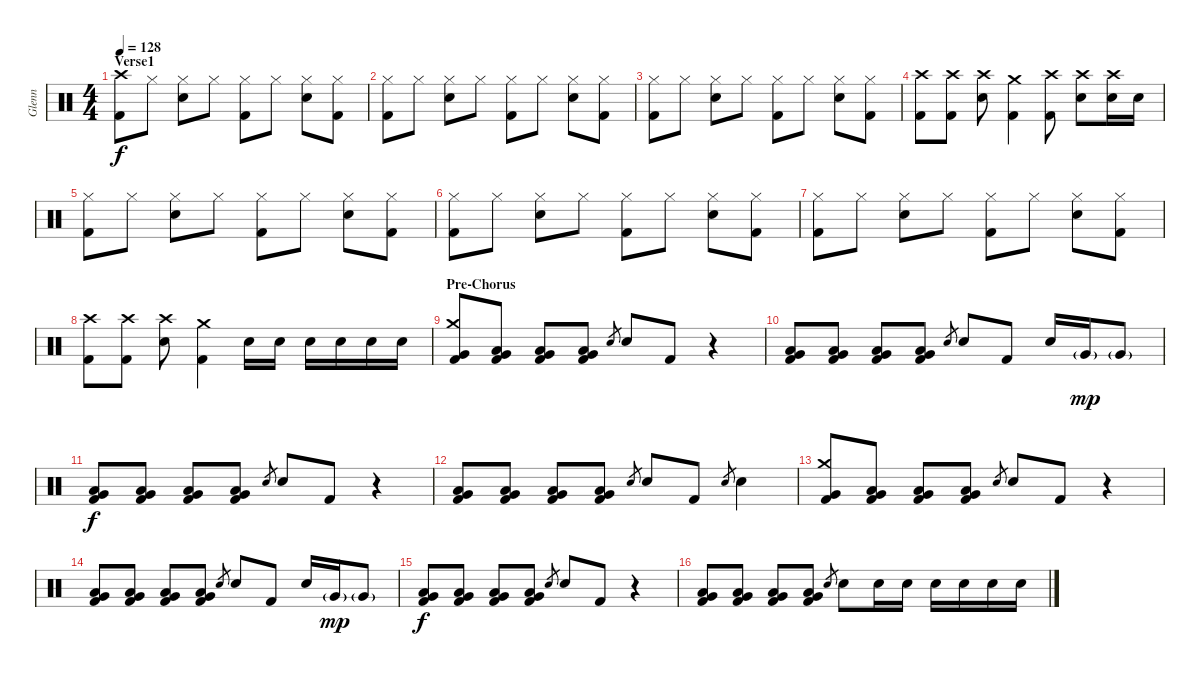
\track ("Glenn" "Glenn") {instrument percussion}
\staff {score}
\articulation defaults
\ts (4 4)
\section ("" "Verse1")
\tempo 128
\clef neutral
\ks c
("Crash high (hit)" "Kick (hit) 2").8{dy f} "Hi-Hat (closed)".8 ("Hi-Hat (closed)" "Electric Snare (hit)").8 "Hi-Hat (closed)".8 ("Hi-Hat (closed)" "Kick (hit) 2").8 "Hi-Hat (closed)".8 ("Hi-Hat (closed)" "Electric Snare (hit)").8 ("Hi-Hat (closed)" "Kick (hit) 2").8 |
("Hi-Hat (closed)" "Kick (hit) 2").8 "Hi-Hat (closed)".8 ("Hi-Hat (closed)" "Electric Snare (hit)").8 "Hi-Hat (closed)".8 ("Hi-Hat (closed)" "Kick (hit) 2").8 "Hi-Hat (closed)".8 ("Hi-Hat (closed)" "Electric Snare (hit)").8 ("Hi-Hat (closed)" "Kick (hit) 2").8 |
("Hi-Hat (closed)" "Kick (hit) 2").8 "Hi-Hat (closed)".8 ("Hi-Hat (closed)" "Electric Snare (hit)").8 "Hi-Hat (closed)".8 ("Hi-Hat (closed)" "Kick (hit) 2").8 "Hi-Hat (closed)".8 ("Hi-Hat (closed)" "Electric Snare (hit)").8 ("Hi-Hat (closed)" "Kick (hit) 2").8 |
("Crash high (hit)" "Kick (hit) 2").8 ("Crash high (hit)" "Kick (hit) 2").8 ("Crash high (hit)" "Electric Snare (hit)").8 ("Crash medium (hit)" "Kick (hit) 2").4 ("Crash high (hit)" "Kick (hit) 2").8 ("Crash high (hit)" "Electric Snare (hit)").8 ("Crash high (hit)" "Electric Snare (hit)").16 "Electric Snare (hit)".16 |
("Hi-Hat (closed)" "Kick (hit) 2").8 "Hi-Hat (closed)".8 ("Hi-Hat (closed)" "Electric Snare (hit)").8 "Hi-Hat (closed)".8 ("Hi-Hat (closed)" "Kick (hit) 2").8 "Hi-Hat (closed)".8 ("Hi-Hat (closed)" "Electric Snare (hit)").8 ("Hi-Hat (closed)" "Kick (hit) 2").8 |
("Hi-Hat (closed)" "Kick (hit) 2").8 "Hi-Hat (closed)".8 ("Hi-Hat (closed)" "Electric Snare (hit)").8 "Hi-Hat (closed)".8 ("Hi-Hat (closed)" "Kick (hit) 2").8 "Hi-Hat (closed)".8 ("Hi-Hat (closed)" "Electric Snare (hit)").8 ("Hi-Hat (closed)" "Kick (hit) 2").8 |
("Hi-Hat (closed)" "Kick (hit) 2").8 "Hi-Hat (closed)".8 ("Hi-Hat (closed)" "Electric Snare (hit)").8 "Hi-Hat (closed)".8 ("Hi-Hat (closed)" "Kick (hit) 2").8 "Hi-Hat (closed)".8 ("Hi-Hat (closed)" "Electric Snare (hit)").8 ("Hi-Hat (closed)" "Kick (hit) 2").8 |
("Crash high (hit)" "Kick (hit) 2").8 ("Crash high (hit)" "Kick (hit) 2").8 ("Crash high (hit)" "Electric Snare (hit)").8 ("Crash medium (hit)" "Kick (hit) 2").4 "Electric Snare (hit)".16 "Electric Snare (hit)".16 "Electric Snare (hit)".16 "Electric Snare (hit)".16 "Electric Snare (hit)".16 "Electric Snare (hit)".16 |
\section ("" "Pre-Chorus")
("Crash medium (hit)" "Very Low Tom (hit)" "Kick (hit) 2").8 ("Low Tom (hit)" "Very Low Tom (hit)" "Kick (hit) 2").8 ("Low Tom (hit)" "Very Low Tom (hit)" "Kick (hit) 2").8 ("Low Tom (hit)" "Very Low Tom (hit)" "Kick (hit) 2").8 "Electric Snare (hit)".8{gr} "Electric Snare (hit)".8 "Kick (hit) 2".8 r.4 |
("Low Tom (hit)" "Very Low Tom (hit)" "Kick (hit) 2").8 ("Low Tom (hit)" "Very Low Tom (hit)" "Kick (hit) 2").8 ("Low Tom (hit)" "Very Low Tom (hit)" "Kick (hit) 2").8 ("Low Tom (hit)" "Very Low Tom (hit)" "Kick (hit) 2").8 "Electric Snare (hit)".8{gr} "Electric Snare (hit)".8 "Kick (hit) 2".8 "Electric Snare (hit)".16 "Very Low Tom (hit)"{g}.16{dy mp} "Very Low Tom (hit)"{g}.8 |
("Low Tom (hit)" "Very Low Tom (hit)" "Kick (hit) 2").8{dy f} ("Low Tom (hit)" "Very Low Tom (hit)" "Kick (hit) 2").8 ("Low Tom (hit)" "Very Low Tom (hit)" "Kick (hit) 2").8 ("Low Tom (hit)" "Very Low Tom (hit)" "Kick (hit) 2").8 "Electric Snare (hit)".8{gr} "Electric Snare (hit)".8 "Kick (hit) 2".8 r.4 |
("Low Tom (hit)" "Very Low Tom (hit)" "Kick (hit) 2").8 ("Low Tom (hit)" "Very Low Tom (hit)" "Kick (hit) 2").8 ("Low Tom (hit)" "Very Low Tom (hit)" "Kick (hit) 2").8 ("Low Tom (hit)" "Very Low Tom (hit)" "Kick (hit) 2").8 "Electric Snare (hit)".8{gr} "Electric Snare (hit)".8 "Kick (hit) 2".8 "Electric Snare (hit)".8{gr} "Electric Snare (hit)".4 |
("Crash medium (hit)" "Very Low Tom (hit)" "Kick (hit) 2").8 ("Low Tom (hit)" "Very Low Tom (hit)" "Kick (hit) 2").8 ("Low Tom (hit)" "Very Low Tom (hit)" "Kick (hit) 2").8 ("Low Tom (hit)" "Very Low Tom (hit)" "Kick (hit) 2").8 "Electric Snare (hit)".8{gr} "Electric Snare (hit)".8 "Kick (hit) 2".8 r.4 |
("Low Tom (hit)" "Very Low Tom (hit)" "Kick (hit) 2").8 ("Low Tom (hit)" "Very Low Tom (hit)" "Kick (hit) 2").8 ("Low Tom (hit)" "Very Low Tom (hit)" "Kick (hit) 2").8 ("Low Tom (hit)" "Very Low Tom (hit)" "Kick (hit) 2").8 "Electric Snare (hit)".8{gr} "Electric Snare (hit)".8 "Kick (hit) 2".8 "Electric Snare (hit)".16 "Very Low Tom (hit)"{g}.16{dy mp} "Very Low Tom (hit)"{g}.8 |
("Low Tom (hit)" "Very Low Tom (hit)" "Kick (hit) 2").8{dy f} ("Low Tom (hit)" "Very Low Tom (hit)" "Kick (hit) 2").8 ("Low Tom (hit)" "Very Low Tom (hit)" "Kick (hit) 2").8 ("Low Tom (hit)" "Very Low Tom (hit)" "Kick (hit) 2").8 "Electric Snare (hit)".8{gr} "Electric Snare (hit)".8 "Kick (hit) 2".8 r.4 |
("Low Tom (hit)" "Very Low Tom (hit)" "Kick (hit) 2").8 ("Low Tom (hit)" "Very Low Tom (hit)" "Kick (hit) 2").8 ("Low Tom (hit)" "Very Low Tom (hit)" "Kick (hit) 2").8 ("Low Tom (hit)" "Very Low Tom (hit)" "Kick (hit) 2").8 "Electric Snare (hit)".8{gr} "Electric Snare (hit)".8 "Electric Snare (hit)".16 "Electric Snare (hit)".16 "Electric Snare (hit)".16 "Electric Snare (hit)".16 "Electric Snare (hit)".16 "Electric Snare (hit)".16
